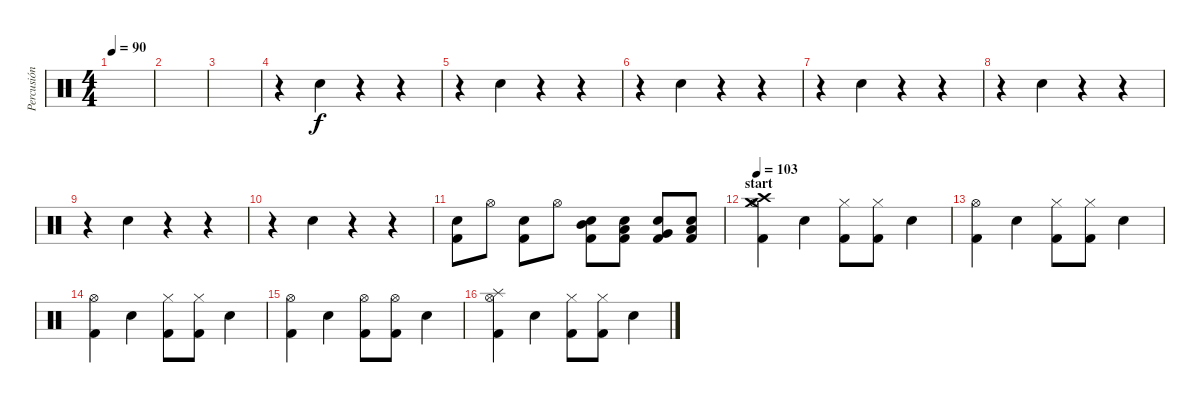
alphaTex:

\track ("Percusión" "Percusión") {instrument percussion}
\staff {score}
\articulation defaults
\ts (4 4)
\tempo 90
\clef neutral
\ks c
|
|
|
r.4 "Electric Snare (hit)".4 r.4 r.4 |
r.4 "Electric Snare (hit)".4 r.4 r.4 |
r.4 "Electric Snare (hit)".4 r.4 r.4 |
r.4 "Electric Snare (hit)".4 r.4 r.4 |
r.4 "Electric Snare (hit)".4 r.4 r.4 |
r.4 "Electric Snare (hit)".4 r.4 r.4 |
r.4 "Electric Snare (hit)".4 r.4 r.4 |
("Electric Snare (hit)" "Kick (hit) 2").8 "Hi-Hat (open)".8 ("Electric Snare (hit)" "Kick (hit) 2").8 "Hi-Hat (open)".8 ("Mid Tom (hit)" "Electric Snare (hit)" "Kick (hit) 2").8 ("Low Tom (hit)" "Electric Snare (hit)" "Kick (hit) 2").8 ("Very Low Tom (hit)" "Electric Snare (hit)" "Kick (hit) 2").8 ("Low Floor Tom (hit)" "Electric Snare (hit)" "Kick (hit) 2").8 |
\section ("" "start ")
\tempo 103
("Crash medium (hit)" "Crash high (hit)" "Hi-Hat (open)" "Kick (hit) 2").4 "Electric Snare (hit)".4 ("Hi-Hat (closed)" "Kick (hit) 2").8 ("Hi-Hat (closed)" "Kick (hit) 2").8 "Electric Snare (hit)".4 |
("Hi-Hat (open)" "Kick (hit) 2").4 "Electric Snare (hit)".4 ("Hi-Hat (closed)" "Kick (hit) 2").8 ("Hi-Hat (closed)" "Kick (hit) 2").8 "Electric Snare (hit)".4 |
("Hi-Hat (open)" "Kick (hit) 2").4 "Electric Snare (hit)".4 ("Hi-Hat (closed)" "Kick (hit) 2").8 ("Hi-Hat (closed)" "Kick (hit) 2").8 "Electric Snare (hit)".4 |
("Hi-Hat (open)" "Kick (hit) 2").4 "Electric Snare (hit)".4 ("Hi-Hat (open)" "Kick (hit) 2").8 ("Hi-Hat (open)" "Kick (hit) 2").8 "Electric Snare (hit)".4 |
("Splash (hit)" "Hi-Hat (open)" "Kick (hit) 2").4 "Electric Snare (hit)".4 ("Hi-Hat (closed)" "Kick (hit) 2").8 ("Hi-Hat (closed)" "Kick (hit) 2").8 "Electric Snare (hit)".4
